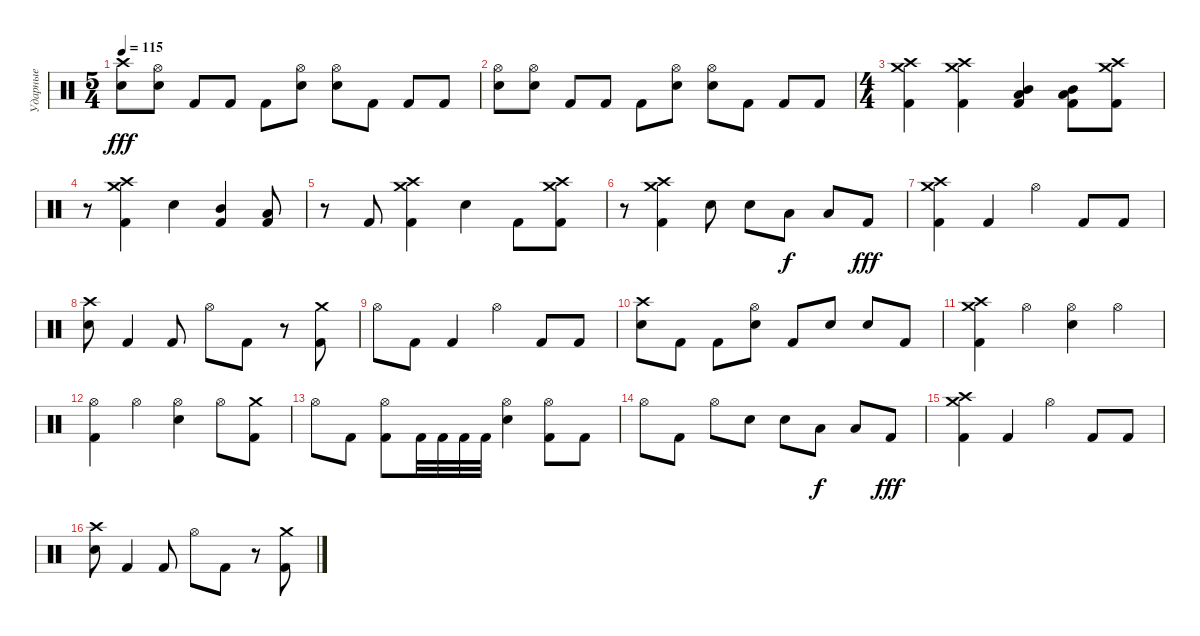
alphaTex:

\track ("Ударные" "Ударные") {instrument percussion}
\staff {score}
\articulation defaults
\ts (5 4)
\tempo 115
\clef neutral
\ks c
("Crash high (hit)" "Electric Snare (hit)").8{dy fff} ("Hi-Hat (open)" "Electric Snare (hit)").8 "Kick (hit) 2".8 "Kick (hit) 2".8 "Kick (hit) 2".8 ("Hi-Hat (open)" "Electric Snare (hit)").8 ("Hi-Hat (open)" "Electric Snare (hit)").8 "Kick (hit) 2".8 "Kick (hit) 2".8 "Kick (hit) 2".8 |
("Hi-Hat (open)" "Electric Snare (hit)").8 ("Hi-Hat (open)" "Electric Snare (hit)").8 "Kick (hit) 2".8 "Kick (hit) 2".8 "Kick (hit) 2".8 ("Hi-Hat (open)" "Electric Snare (hit)").8 ("Hi-Hat (open)" "Electric Snare (hit)").8 "Kick (hit) 2".8 "Kick (hit) 2".8 "Kick (hit) 2".8 |
\ts (4 4)
("Crash high (hit)" "Crash medium (hit)" "Kick (hit) 2").4 ("Crash high (hit)" "Crash medium (hit)" "Kick (hit) 2").4 ("Mid Tom (hit)" "Low Floor Tom (hit)" "Kick (hit) 2").4 ("Mid Tom (hit)" "Low Floor Tom (hit)" "Kick (hit) 2").8 ("Crash high (hit)" "Crash medium (hit)" "Kick (hit) 2").8 |
r.8 ("Crash high (hit)" "Crash medium (hit)" "Kick (hit) 2").4 "Electric Snare (hit)".4 ("Mid Tom (hit)" "Kick (hit) 2").4 ("Low Floor Tom (hit)" "Kick (hit) 2").8 |
r.8 "Kick (hit) 2".8 ("Crash high (hit)" "Crash medium (hit)" "Kick (hit) 2").4 "Electric Snare (hit)".4 "Kick (hit) 2".8 ("Crash high (hit)" "Crash medium (hit)" "Kick (hit) 2").8 |
r.8 ("Crash high (hit)" "Crash medium (hit)" "Kick (hit) 2").4 "Electric Snare (hit)".8 "Electric Snare (hit)".8 "Low Floor Tom (hit)".8{dy f} "Low Floor Tom (hit)".8 "Kick (hit) 2".8{dy fff} |
("Crash high (hit)" "Crash medium (hit)" "Kick (hit) 2").4 "Kick (hit) 2".4 "Hi-Hat (open)".4 "Kick (hit) 2".8 "Kick (hit) 2".8 |
("Crash high (hit)" "Electric Snare (hit)").8 "Kick (hit) 2".4 "Kick (hit) 2".8 "Hi-Hat (open)".8 "Kick (hit) 2".8 r.8 ("Crash medium (hit)" "Kick (hit) 2").8 |
"Hi-Hat (open)".8 "Kick (hit) 2".8 "Kick (hit) 2".4 "Hi-Hat (open)".4 "Kick (hit) 2".8 "Kick (hit) 2".8 |
("Crash high (hit)" "Electric Snare (hit)").8 "Kick (hit) 2".8 "Kick (hit) 2".8 ("Hi-Hat (open)" "Electric Snare (hit)").8 "Kick (hit) 2".8 "Electric Snare (hit)".8 "Electric Snare (hit)".8 "Kick (hit) 2".8 |
("Crash high (hit)" "Crash medium (hit)" "Kick (hit) 2").4 "Hi-Hat (open)".4 ("Hi-Hat (open)" "Electric Snare (hit)").4 "Hi-Hat (open)".4 |
("Hi-Hat (open)" "Kick (hit) 2").4 "Hi-Hat (open)".4 ("Hi-Hat (open)" "Electric Snare (hit)").4 "Hi-Hat (open)".8 ("Crash medium (hit)" "Kick (hit) 2").8 |
"Hi-Hat (open)".8 "Kick (hit) 2".8 ("Hi-Hat (open)" "Kick (hit) 2").8 "Kick (hit) 2".32 "Kick (hit) 2".32 "Kick (hit) 2".32 "Kick (hit) 2".32 ("Hi-Hat (open)" "Electric Snare (hit)").4 ("Hi-Hat (open)" "Kick (hit) 2").8 "Kick (hit) 2".8 |
"Hi-Hat (open)".8 "Kick (hit) 2".8 "Hi-Hat (open)".8 "Electric Snare (hit)".8 "Electric Snare (hit)".8 "Low Floor Tom (hit)".8{dy f} "Low Floor Tom (hit)".8 "Kick (hit) 2".8{dy fff} |
("Crash high (hit)" "Crash medium (hit)" "Kick (hit) 2").4 "Kick (hit) 2".4 "Hi-Hat (open)".4 "Kick (hit) 2".8 "Kick (hit) 2".8 |
("Crash high (hit)" "Electric Snare (hit)").8 "Kick (hit) 2".4 "Kick (hit) 2".8 "Hi-Hat (open)".8 "Kick (hit) 2".8 r.8 ("Crash medium (hit)" "Kick (hit) 2").8
